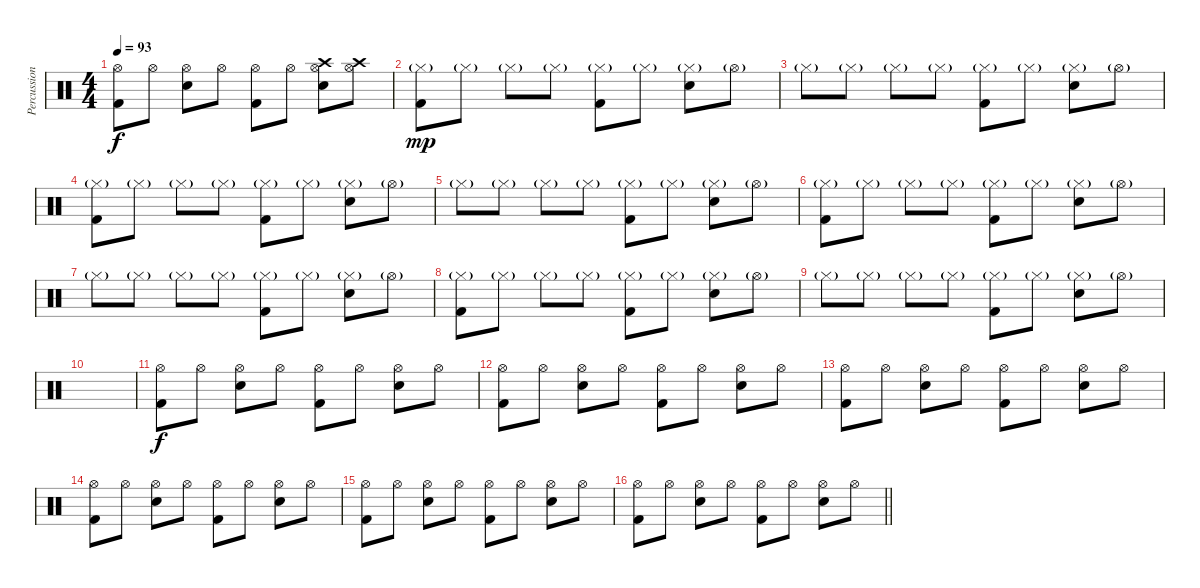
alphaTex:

\track ("Percussion" "Percussion") {instrument percussion}
\staff {score}
\articulation defaults
\ts (4 4)
\tempo 93
\clef neutral
\ks c
("Kick (hit) 2" "Hi-Hat (open)").8{dy f} "Hi-Hat (open)".8 ("Electric Snare (hit)" "Hi-Hat (open)").8 "Hi-Hat (open)".8 ("Kick (hit) 2" "Hi-Hat (open)").8 "Hi-Hat (open)".8 ("Crash high (hit)" "Electric Snare (hit)" "Hi-Hat (open)").8 ("Crash high (hit)" "Hi-Hat (open)").8 |
("Kick (hit) 2" "Hi-Hat (closed)"{g}).8{dy mp} "Hi-Hat (closed)"{g}.8 "Hi-Hat (closed)"{g}.8 "Hi-Hat (closed)"{g}.8 ("Kick (hit) 2" "Hi-Hat (closed)"{g}).8 "Hi-Hat (closed)"{g}.8 ("Electric Snare (hit)" "Hi-Hat (closed)"{g}).8 "Hi-Hat (open)"{g}.8 |
"Hi-Hat (closed)"{g}.8 "Hi-Hat (closed)"{g}.8 "Hi-Hat (closed)"{g}.8 "Hi-Hat (closed)"{g}.8 ("Kick (hit) 2" "Hi-Hat (closed)"{g}).8 "Hi-Hat (closed)"{g}.8 ("Electric Snare (hit)" "Hi-Hat (closed)"{g}).8 "Hi-Hat (open)"{g}.8 |
("Kick (hit) 2" "Hi-Hat (closed)"{g}).8 "Hi-Hat (closed)"{g}.8 "Hi-Hat (closed)"{g}.8 "Hi-Hat (closed)"{g}.8 ("Kick (hit) 2" "Hi-Hat (closed)"{g}).8 "Hi-Hat (closed)"{g}.8 ("Electric Snare (hit)" "Hi-Hat (closed)"{g}).8 "Hi-Hat (open)"{g}.8 |
"Hi-Hat (closed)"{g}.8 "Hi-Hat (closed)"{g}.8 "Hi-Hat (closed)"{g}.8 "Hi-Hat (closed)"{g}.8 ("Kick (hit) 2" "Hi-Hat (closed)"{g}).8 "Hi-Hat (closed)"{g}.8 ("Electric Snare (hit)" "Hi-Hat (closed)"{g}).8 "Hi-Hat (open)"{g}.8 |
("Kick (hit) 2" "Hi-Hat (closed)"{g}).8 "Hi-Hat (closed)"{g}.8 "Hi-Hat (closed)"{g}.8 "Hi-Hat (closed)"{g}.8 ("Kick (hit) 2" "Hi-Hat (closed)"{g}).8 "Hi-Hat (closed)"{g}.8 ("Electric Snare (hit)" "Hi-Hat (closed)"{g}).8 "Hi-Hat (open)"{g}.8 |
"Hi-Hat (closed)"{g}.8 "Hi-Hat (closed)"{g}.8 "Hi-Hat (closed)"{g}.8 "Hi-Hat (closed)"{g}.8 ("Kick (hit) 2" "Hi-Hat (closed)"{g}).8 "Hi-Hat (closed)"{g}.8 ("Electric Snare (hit)" "Hi-Hat (closed)"{g}).8 "Hi-Hat (open)"{g}.8 |
("Kick (hit) 2" "Hi-Hat (closed)"{g}).8 "Hi-Hat (closed)"{g}.8 "Hi-Hat (closed)"{g}.8 "Hi-Hat (closed)"{g}.8 ("Kick (hit) 2" "Hi-Hat (closed)"{g}).8 "Hi-Hat (closed)"{g}.8 ("Electric Snare (hit)" "Hi-Hat (closed)"{g}).8 "Hi-Hat (open)"{g}.8 |
"Hi-Hat (closed)"{g}.8 "Hi-Hat (closed)"{g}.8 "Hi-Hat (closed)"{g}.8 "Hi-Hat (closed)"{g}.8 ("Kick (hit) 2" "Hi-Hat (closed)"{g}).8 "Hi-Hat (closed)"{g}.8 ("Electric Snare (hit)" "Hi-Hat (closed)"{g}).8 "Hi-Hat (open)"{g}.8 |
|
("Kick (hit) 2" "Hi-Hat (open)").8{dy f} "Hi-Hat (open)".8 ("Electric Snare (hit)" "Hi-Hat (open)").8 "Hi-Hat (open)".8 ("Kick (hit) 2" "Hi-Hat (open)").8 "Hi-Hat (open)".8 ("Electric Snare (hit)" "Hi-Hat (open)").8 "Hi-Hat (open)".8 |
("Kick (hit) 2" "Hi-Hat (open)").8 "Hi-Hat (open)".8 ("Electric Snare (hit)" "Hi-Hat (open)").8 "Hi-Hat (open)".8 ("Kick (hit) 2" "Hi-Hat (open)").8 "Hi-Hat (open)".8 ("Electric Snare (hit)" "Hi-Hat (open)").8 "Hi-Hat (open)".8 |
("Kick (hit) 2" "Hi-Hat (open)").8 "Hi-Hat (open)".8 ("Electric Snare (hit)" "Hi-Hat (open)").8 "Hi-Hat (open)".8 ("Kick (hit) 2" "Hi-Hat (open)").8 "Hi-Hat (open)".8 ("Electric Snare (hit)" "Hi-Hat (open)").8 "Hi-Hat (open)".8 |
("Kick (hit) 2" "Hi-Hat (open)").8 "Hi-Hat (open)".8 ("Electric Snare (hit)" "Hi-Hat (open)").8 "Hi-Hat (open)".8 ("Kick (hit) 2" "Hi-Hat (open)").8 "Hi-Hat (open)".8 ("Electric Snare (hit)" "Hi-Hat (open)").8 "Hi-Hat (open)".8 |
("Kick (hit) 2" "Hi-Hat (open)").8 "Hi-Hat (open)".8 ("Electric Snare (hit)" "Hi-Hat (open)").8 "Hi-Hat (open)".8 ("Kick (hit) 2" "Hi-Hat (open)").8 "Hi-Hat (open)".8 ("Electric Snare (hit)" "Hi-Hat (open)").8 "Hi-Hat (open)".8 |
\barLineRight lightlight
("Kick (hit) 2" "Hi-Hat (open)").8 "Hi-Hat (open)".8 ("Electric Snare (hit)" "Hi-Hat (open)").8 "Hi-Hat (open)".8 ("Kick (hit) 2" "Hi-Hat (open)").8 "Hi-Hat (open)".8 ("Electric Snare (hit)" "Hi-Hat (open)").8 "Hi-Hat (open)".8
